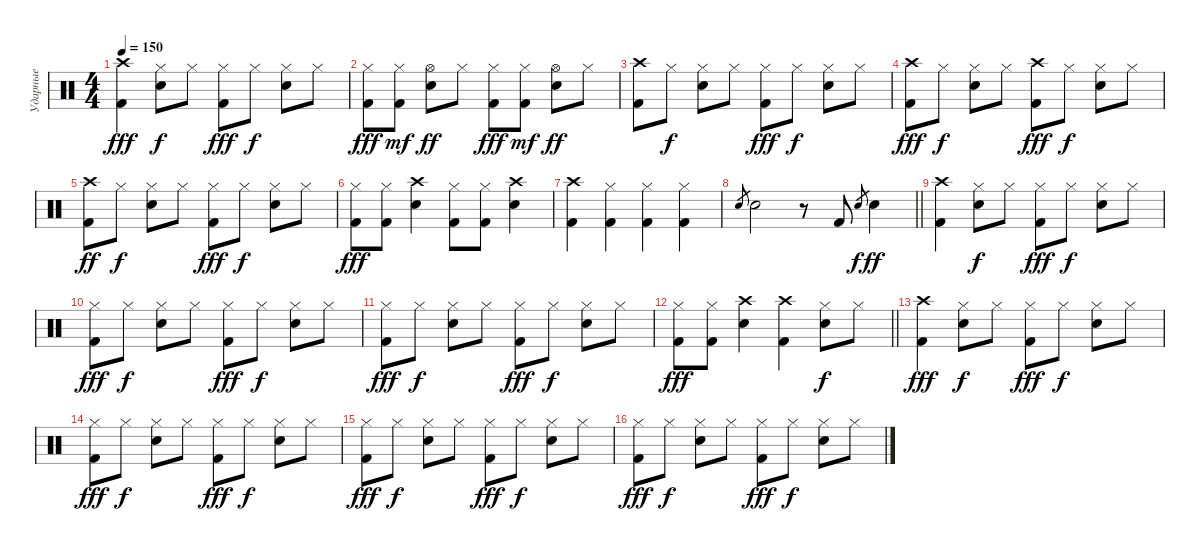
\track ("Ударные" "Ударные") {instrument percussion}
\staff {score}
\articulation defaults
\ts (4 4)
\tempo 150
\clef neutral
\ks c
("Kick (hit) 2" "Crash high (hit)").4{dy fff} ("Snare (hit) 2" "Hi-Hat (closed)").8{dy f} "Hi-Hat (closed)".8 ("Kick (hit) 2" "Hi-Hat (closed)").8{dy fff} "Hi-Hat (closed)".8{dy f} ("Snare (hit) 2" "Hi-Hat (closed)").8 "Hi-Hat (closed)".8 |
("Kick (hit) 2" "Hi-Hat (closed)").8{dy fff} ("Kick (hit) 2" "Hi-Hat (closed)").8{dy mf} ("Snare (hit) 2" "Hi-Hat (open)").8{dy ff} "Hi-Hat (closed)".8 ("Kick (hit) 2" "Hi-Hat (closed)").8{dy fff} ("Kick (hit) 2" "Hi-Hat (closed)").8{dy mf} ("Snare (hit) 2" "Hi-Hat (open)").8{dy ff} "Hi-Hat (closed)".8 |
("Kick (hit) 2" "Crash high (hit)").8 "Hi-Hat (closed)".8{dy f} ("Snare (hit) 2" "Hi-Hat (closed)").8 "Hi-Hat (closed)".8 ("Kick (hit) 2" "Hi-Hat (closed)").8{dy fff} "Hi-Hat (closed)".8{dy f} ("Snare (hit) 2" "Hi-Hat (closed)").8 "Hi-Hat (closed)".8 |
("Kick (hit) 2" "Crash high (hit)").8{dy fff} "Hi-Hat (closed)".8{dy f} ("Snare (hit) 2" "Hi-Hat (closed)").8 "Hi-Hat (closed)".8 ("Kick (hit) 2" "Crash high (hit)").8{dy fff} "Hi-Hat (closed)".8{dy f} ("Snare (hit) 2" "Hi-Hat (closed)").8 "Hi-Hat (closed)".8 |
("Kick (hit) 2" "Crash high (hit)").8{dy ff} "Hi-Hat (closed)".8{dy f} ("Snare (hit) 2" "Hi-Hat (closed)").8 "Hi-Hat (closed)".8 ("Kick (hit) 2" "Hi-Hat (closed)").8{dy fff} "Hi-Hat (closed)".8{dy f} ("Snare (hit) 2" "Hi-Hat (closed)").8 "Hi-Hat (closed)".8 |
("Kick (hit) 2" "Hi-Hat (closed)").8{dy fff} ("Kick (hit) 2" "Hi-Hat (closed)").8 ("Snare (hit) 2" "Crash high (hit)").4 ("Kick (hit) 2" "Hi-Hat (closed)").8 ("Kick (hit) 2" "Hi-Hat (closed)").8 ("Snare (hit) 2" "Crash high (hit)").4 |
("Kick (hit) 2" "Crash high (hit)").4 ("Kick (hit) 2" "Hi-Hat (closed)").4 ("Kick (hit) 2" "Hi-Hat (closed)").4 ("Kick (hit) 2" "Hi-Hat (closed)").4 |
\barLineRight lightlight "Snare (hit) 2".8{gr} "Snare (hit) 2".2
r.8 "Kick (hit) 2".8 "Snare (hit) 2".8{gr dy f} "Snare (hit) 2".4{dy ff} |
("Kick (hit) 2" "Crash high (hit)").4 ("Snare (hit) 2" "Hi-Hat (closed)").8{dy f} "Hi-Hat (closed)".8 ("Kick (hit) 2" "Hi-Hat (closed)").8{dy fff} "Hi-Hat (closed)".8{dy f} ("Snare (hit) 2" "Hi-Hat (closed)").8 "Hi-Hat (closed)".8 |
("Kick (hit) 2" "Hi-Hat (closed)").8{dy fff} "Hi-Hat (closed)".8{dy f} ("Snare (hit) 2" "Hi-Hat (closed)").8 "Hi-Hat (closed)".8 ("Kick (hit) 2" "Hi-Hat (closed)").8{dy fff} "Hi-Hat (closed)".8{dy f} ("Snare (hit) 2" "Hi-Hat (closed)").8 "Hi-Hat (closed)".8 |
("Kick (hit) 2" "Hi-Hat (closed)").8{dy fff} "Hi-Hat (closed)".8{dy f} ("Snare (hit) 2" "Hi-Hat (closed)").8 "Hi-Hat (closed)".8 ("Kick (hit) 2" "Hi-Hat (closed)").8{dy fff} "Hi-Hat (closed)".8{dy f} ("Snare (hit) 2" "Hi-Hat (closed)").8 "Hi-Hat (closed)".8 |
\barLineRight lightlight
("Kick (hit) 2" "Hi-Hat (closed)").8{dy fff} ("Kick (hit) 2" "Hi-Hat (closed)").8 ("Snare (hit) 2" "Crash high (hit)").4 ("Kick (hit) 2" "Crash high (hit)").4 ("Snare (hit) 2" "Hi-Hat (closed)").8{dy f} "Hi-Hat (closed)".8 |
("Kick (hit) 2" "Crash high (hit)").4{dy fff} ("Snare (hit) 2" "Hi-Hat (closed)").8{dy f} "Hi-Hat (closed)".8 ("Kick (hit) 2" "Hi-Hat (closed)").8{dy fff} "Hi-Hat (closed)".8{dy f} ("Snare (hit) 2" "Hi-Hat (closed)").8 "Hi-Hat (closed)".8 |
("Kick (hit) 2" "Hi-Hat (closed)").8{dy fff} "Hi-Hat (closed)".8{dy f} ("Snare (hit) 2" "Hi-Hat (closed)").8 "Hi-Hat (closed)".8 ("Kick (hit) 2" "Hi-Hat (closed)").8{dy fff} "Hi-Hat (closed)".8{dy f} ("Snare (hit) 2" "Hi-Hat (closed)").8 "Hi-Hat (closed)".8 |
("Kick (hit) 2" "Hi-Hat (closed)").8{dy fff} "Hi-Hat (closed)".8{dy f} ("Snare (hit) 2" "Hi-Hat (closed)").8 "Hi-Hat (closed)".8 ("Kick (hit) 2" "Hi-Hat (closed)").8{dy fff} "Hi-Hat (closed)".8{dy f} ("Snare (hit) 2" "Hi-Hat (closed)").8 "Hi-Hat (closed)".8 |
("Kick (hit) 2" "Hi-Hat (closed)").8{dy fff} "Hi-Hat (closed)".8{dy f} ("Snare (hit) 2" "Hi-Hat (closed)").8 "Hi-Hat (closed)".8 ("Kick (hit) 2" "Hi-Hat (closed)").8{dy fff} "Hi-Hat (closed)".8{dy f} ("Snare (hit) 2" "Hi-Hat (closed)").8 "Hi-Hat (closed)".8
